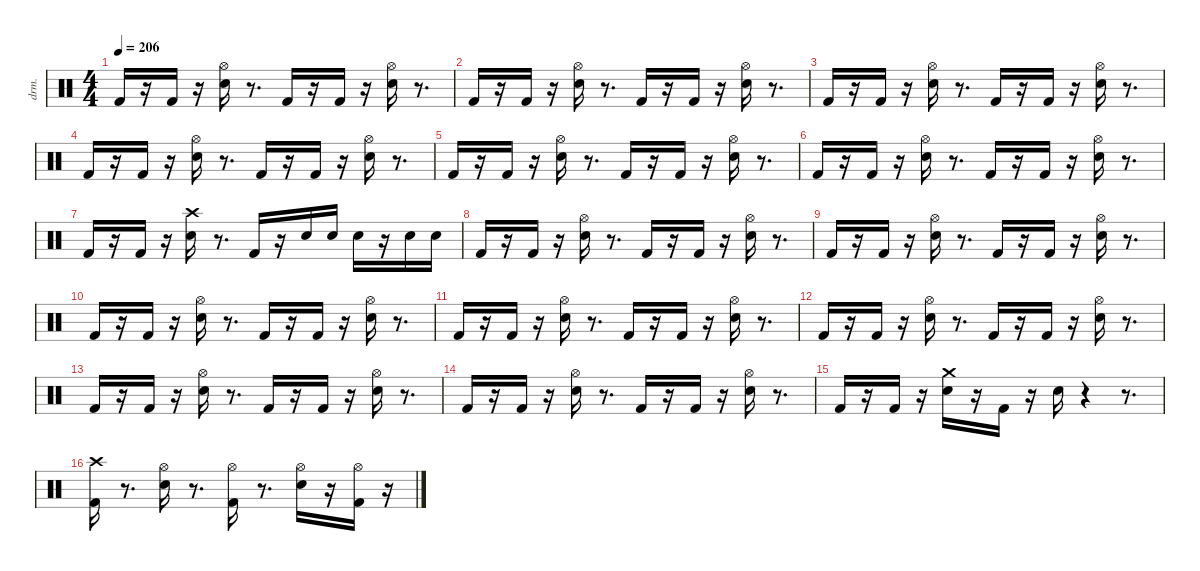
\defaultSystemsLayout 4
\hideDynamics
\bracketExtendMode nobrackets
\otherSystemsTrackNameOrientation horizontal
\track ("EZdrummer 3" "drm.") {instrument percussion}
\staff {score}
\articulation defaults
\ts (4 4)
\tempo 206
\clef neutral
\ks aminor "Kick (hit) 2".16{dy mf beam Up}
r.16{beam Up} "Kick (hit) 2".16{dy ff beam Up} r.16{beam Up} ("Snare (hit) 2" "Hi-Hat (open)"{acc #}).16{beam Down} r.8{d beam Down} "Kick (hit) 2".16{dy mf beam Up} r.16{beam Up} "Kick (hit) 2".16{dy ff beam Up} r.16{beam Up} ("Snare (hit) 2" "Hi-Hat (open)"{acc #}).16{beam Down} r.8{d beam Down} |
"Kick (hit) 2".16{dy mf beam Up} r.16{beam Up} "Kick (hit) 2".16{dy ff beam Up} r.16{beam Up} ("Snare (hit) 2" "Hi-Hat (open)"{acc #}).16{beam Down} r.8{d beam Down} "Kick (hit) 2".16{dy mf beam Up} r.16{beam Up} "Kick (hit) 2".16{dy ff beam Up} r.16{beam Up} ("Snare (hit) 2" "Hi-Hat (open)"{acc #}).16{beam Down} r.8{d beam Down} |
"Kick (hit) 2".16{dy mf beam Up} r.16{beam Up} "Kick (hit) 2".16{dy ff beam Up} r.16{beam Up} ("Snare (hit) 2" "Hi-Hat (open)"{acc #}).16{beam Down} r.8{d beam Down} "Kick (hit) 2".16{dy mf beam Up} r.16{beam Up} "Kick (hit) 2".16{dy ff beam Up} r.16{beam Up} ("Snare (hit) 2" "Hi-Hat (open)"{acc #}).16{beam Down} r.8{d beam Down} |
"Kick (hit) 2".16{dy mf beam Up} r.16{beam Up} "Kick (hit) 2".16{dy ff beam Up} r.16{beam Up} ("Snare (hit) 2" "Hi-Hat (open)"{acc #}).16{beam Down} r.8{d beam Down} "Kick (hit) 2".16{dy mf beam Up} r.16{beam Up} "Kick (hit) 2".16{dy ff beam Up} r.16{beam Up} ("Snare (hit) 2" "Hi-Hat (open)"{acc #}).16{beam Down} r.8{d beam Down} |
"Kick (hit) 2".16{dy mf beam Up} r.16{beam Up} "Kick (hit) 2".16{dy ff beam Up} r.16{beam Up} ("Snare (hit) 2" "Hi-Hat (open)"{acc #}).16{beam Down} r.8{d beam Down} "Kick (hit) 2".16{dy mf beam Up} r.16{beam Up} "Kick (hit) 2".16{dy ff beam Up} r.16{beam Up} ("Snare (hit) 2" "Hi-Hat (open)"{acc #}).16{beam Down} r.8{d beam Down} |
"Kick (hit) 2".16{dy mf beam Up} r.16{beam Up} "Kick (hit) 2".16{dy ff beam Up} r.16{beam Up} ("Snare (hit) 2" "Hi-Hat (open)"{acc #}).16{beam Down} r.8{d beam Down} "Kick (hit) 2".16{dy mf beam Up} r.16{beam Up} "Kick (hit) 2".16{dy ff beam Up} r.16{beam Up} ("Snare (hit) 2" "Hi-Hat (open)"{acc #}).16{beam Down} r.8{d beam Down} |
"Kick (hit) 2".16{dy mf beam Up} r.16{beam Up} "Kick (hit) 2".16{dy ff beam Up} r.16{beam Up} ("Snare (hit) 2" "Crash high (hit)"{acc #}).16{beam Down} r.8{d beam Down} "Kick (hit) 2".16{dy mf beam Up} r.16{beam Up} "Snare (hit) 2".16{beam Up} "Snare (hit) 2".16{dy p beam Up} "Snare (hit) 2".16{dy ff beam Down} r.16{beam Down} "Snare (hit) 2".16{dy mf beam Down} "Snare (hit) 2".16{dy p beam Down} |
"Kick (hit) 2".16{dy mf beam Up} r.16{beam Up} "Kick (hit) 2".16{dy ff beam Up} r.16{beam Up} ("Snare (hit) 2" "Hi-Hat (open)"{acc #}).16{beam Down} r.8{d beam Down} "Kick (hit) 2".16{dy mf beam Up} r.16{beam Up} "Kick (hit) 2".16{dy ff beam Up} r.16{beam Up} ("Snare (hit) 2" "Hi-Hat (open)"{acc #}).16{beam Down} r.8{d beam Down} |
"Kick (hit) 2".16{dy mf beam Up} r.16{beam Up} "Kick (hit) 2".16{dy ff beam Up} r.16{beam Up} ("Snare (hit) 2" "Hi-Hat (open)"{acc #}).16{beam Down} r.8{d beam Down} "Kick (hit) 2".16{dy mf beam Up} r.16{beam Up} "Kick (hit) 2".16{dy ff beam Up} r.16{beam Up} ("Snare (hit) 2" "Hi-Hat (open)"{acc #}).16{beam Down} r.8{d beam Down} |
"Kick (hit) 2".16{dy mf beam Up} r.16{beam Up} "Kick (hit) 2".16{dy ff beam Up} r.16{beam Up} ("Snare (hit) 2" "Hi-Hat (open)"{acc #}).16{beam Down} r.8{d beam Down} "Kick (hit) 2".16{dy mf beam Up} r.16{beam Up} "Kick (hit) 2".16{dy ff beam Up} r.16{beam Up} ("Snare (hit) 2" "Hi-Hat (open)"{acc #}).16{beam Down} r.8{d beam Down} |
"Kick (hit) 2".16{dy mf beam Up} r.16{beam Up} "Kick (hit) 2".16{dy ff beam Up} r.16{beam Up} ("Snare (hit) 2" "Hi-Hat (open)"{acc #}).16{beam Down} r.8{d beam Down} "Kick (hit) 2".16{dy mf beam Up} r.16{beam Up} "Kick (hit) 2".16{dy ff beam Up} r.16{beam Up} ("Snare (hit) 2" "Hi-Hat (open)"{acc #}).16{beam Down} r.8{d beam Down} |
"Kick (hit) 2".16{dy mf beam Up} r.16{beam Up} "Kick (hit) 2".16{dy ff beam Up} r.16{beam Up} ("Snare (hit) 2" "Hi-Hat (open)"{acc #}).16{beam Down} r.8{d beam Down} "Kick (hit) 2".16{dy mf beam Up} r.16{beam Up} "Kick (hit) 2".16{dy ff beam Up} r.16{beam Up} ("Snare (hit) 2" "Hi-Hat (open)"{acc #}).16{beam Down} r.8{d beam Down} |
"Kick (hit) 2".16{dy mf beam Up} r.16{beam Up} "Kick (hit) 2".16{dy ff beam Up} r.16{beam Up} ("Snare (hit) 2" "Hi-Hat (open)"{acc #}).16{beam Down} r.8{d beam Down} "Kick (hit) 2".16{dy mf beam Up} r.16{beam Up} "Kick (hit) 2".16{dy ff beam Up} r.16{beam Up} ("Snare (hit) 2" "Hi-Hat (open)"{acc #}).16{beam Down} r.8{d beam Down} |
"Kick (hit) 2".16{dy mf beam Up} r.16{beam Up} "Kick (hit) 2".16{dy ff beam Up} r.16{beam Up} ("Snare (hit) 2" "Hi-Hat (open)"{acc #}).16{beam Down} r.8{d beam Down} "Kick (hit) 2".16{dy mf beam Up} r.16{beam Up} "Kick (hit) 2".16{dy ff beam Up} r.16{beam Up} ("Snare (hit) 2" "Hi-Hat (open)"{acc #}).16{beam Down} r.8{d beam Down} |
"Kick (hit) 2".16{dy mf beam Up} r.16{beam Up} "Kick (hit) 2".16{dy ff beam Up} r.16{beam Up} ("Snare (hit) 2" "Crash medium (hit)").16{beam Down} r.16{beam Down} "Kick (hit) 2".16{beam Down} r.16{beam Down} "Snare (hit) 2".16{beam Down} r.4{beam Down} r.8{d beam Down} |
("Kick (hit) 2" "Crash high (hit)"{acc #}).16{dy fff beam Down} r.8{d beam Down} ("Snare (hit) 2" "Hi-Hat (open)"{acc #}).16{dy ff beam Down} r.8{d beam Down} ("Kick (hit) 2" "Hi-Hat (open)"{acc #}).16{beam Down} r.8{d beam Down} ("Snare (hit) 2" "Hi-Hat (open)"{acc #}).16{dy f beam Down} r.16{beam Down} ("Kick (hit) 2" "Hi-Hat (open)"{acc #}).16{dy fff beam Down} r.16{beam Down}
